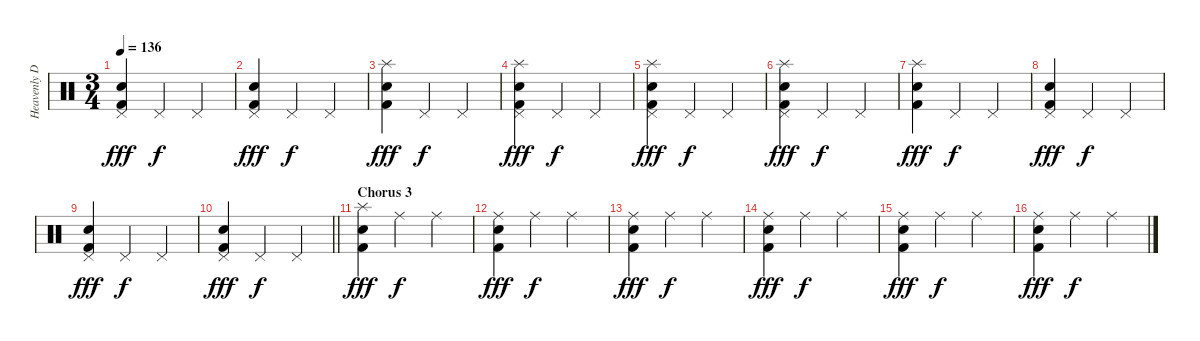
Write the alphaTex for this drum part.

\track ("Heavenly Drums" "Heavenly D") {instrument percussion}
\staff {score}
\articulation defaults
\ts (3 4)
\tempo 136
\clef neutral
\ks c
("Snare (hit) 2" "Pedal Hi-Hat (hit)" "Kick (hit) 2").4{dy fff} "Pedal Hi-Hat (hit)".4{dy f} "Pedal Hi-Hat (hit)".4 |
("Snare (hit) 2" "Pedal Hi-Hat (hit)" "Kick (hit) 2").4{dy fff} "Pedal Hi-Hat (hit)".4{dy f} "Pedal Hi-Hat (hit)".4 |
("Splash (hit)" "Snare (hit) 2" "Kick (hit) 2").4{dy fff} "Pedal Hi-Hat (hit)".4{dy f} "Pedal Hi-Hat (hit)".4 |
("Splash (hit)" "Snare (hit) 2" "Pedal Hi-Hat (hit)" "Kick (hit) 2").4{dy fff} "Pedal Hi-Hat (hit)".4{dy f} "Pedal Hi-Hat (hit)".4 |
("Splash (hit)" "Snare (hit) 2" "Pedal Hi-Hat (hit)" "Kick (hit) 2").4{dy fff} "Pedal Hi-Hat (hit)".4{dy f} "Pedal Hi-Hat (hit)".4 |
("Splash (hit)" "Snare (hit) 2" "Pedal Hi-Hat (hit)" "Kick (hit) 2").4{dy fff} "Pedal Hi-Hat (hit)".4{dy f} "Pedal Hi-Hat (hit)".4 |
("Splash (hit)" "Snare (hit) 2" "Kick (hit) 2").4{dy fff} "Pedal Hi-Hat (hit)".4{dy f} "Pedal Hi-Hat (hit)".4 |
("Snare (hit) 2" "Pedal Hi-Hat (hit)" "Kick (hit) 2").4{dy fff} "Pedal Hi-Hat (hit)".4{dy f} "Pedal Hi-Hat (hit)".4 |
("Snare (hit) 2" "Pedal Hi-Hat (hit)" "Kick (hit) 2").4{dy fff} "Pedal Hi-Hat (hit)".4{dy f} "Pedal Hi-Hat (hit)".4 |
\barLineRight lightlight
("Snare (hit) 2" "Pedal Hi-Hat (hit)" "Kick (hit) 2").4{dy fff} "Pedal Hi-Hat (hit)".4{dy f} "Pedal Hi-Hat (hit)".4 |
\section ("" "Chorus 3")
("Splash (hit)" "Snare (hit) 2" "Kick (hit) 2").4{dy fff} "Ride (middle)".4{dy f} "Ride (middle)".4 |
("Snare (hit) 2" "Ride (middle)" "Kick (hit) 2").4{dy fff} "Ride (middle)".4{dy f} "Ride (middle)".4 |
("Snare (hit) 2" "Ride (middle)" "Kick (hit) 2").4{dy fff} "Ride (middle)".4{dy f} "Ride (middle)".4 |
("Snare (hit) 2" "Ride (middle)" "Kick (hit) 2").4{dy fff} "Ride (middle)".4{dy f} "Ride (middle)".4 |
("Snare (hit) 2" "Ride (middle)" "Kick (hit) 2").4{dy fff} "Ride (middle)".4{dy f} "Ride (middle)".4 |
("Snare (hit) 2" "Ride (middle)" "Kick (hit) 2").4{dy fff} "Ride (middle)".4{dy f} "Ride (middle)".4
